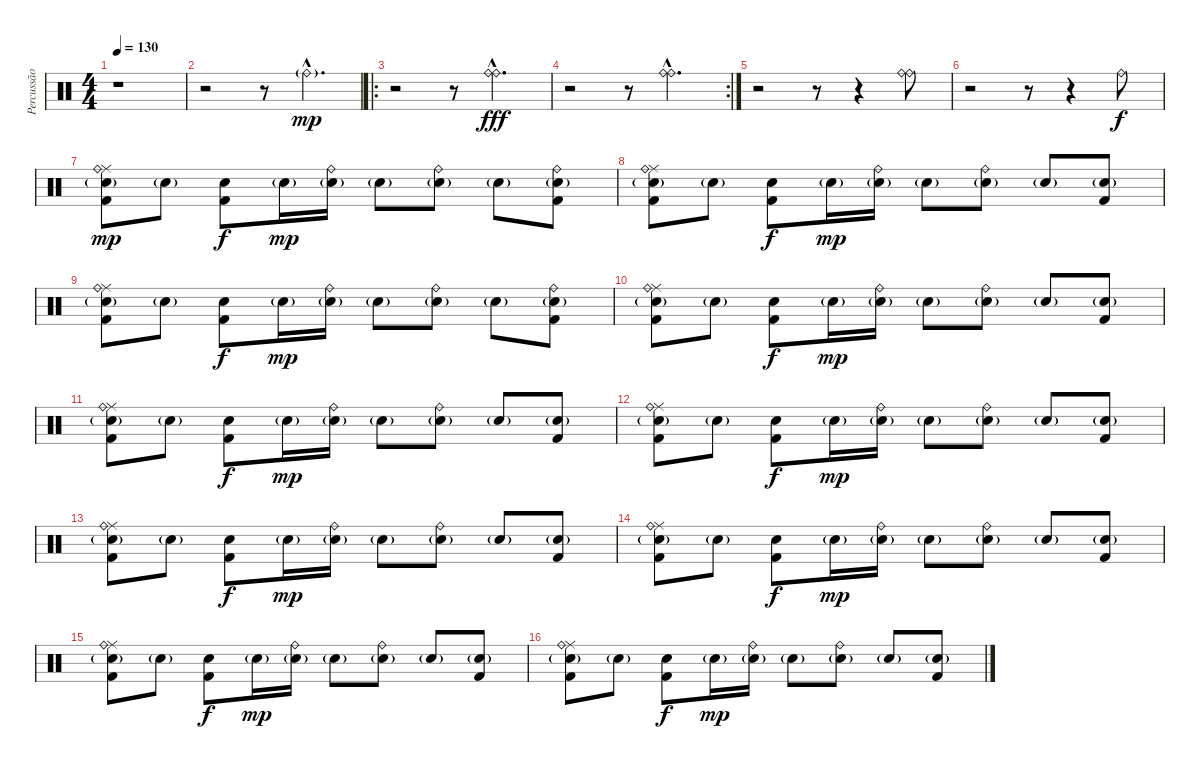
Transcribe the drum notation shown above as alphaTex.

\track ("Percussão" "Percussão") {instrument percussion}
\staff {score}
\articulation defaults
\ts (4 4)
\tempo 130
\clef neutral
\ks c
r.1{dy mp} |
r.2 r.8 "Ride (bell)"{g hac}.4{d} |
\ro
r.2 r.8 ("Ride (bell)"{hac} "Ride (bell)"{hac}).4{d dy fff} |
\rc 2
r.2 r.8 ("Ride (bell)"{hac} "Ride (bell)"{hac}).4{d} |
r.2 r.8 r.4 ("Ride (bell)" "Ride (bell)").8 |
r.2 r.8 r.4 "Ride (bell)".8{dy f} |
("Ride (middle)" "Ride (bell)" "Snare (hit) 2"{g} "Kick (hit) 2").8{dy mp} "Snare (hit) 2"{g}.8 ("Snare (hit) 2" "Kick (hit) 2").8{dy f} "Snare (hit) 2"{g}.16{dy mp} ("Ride (bell)" "Snare (hit) 2"{g}).16 "Snare (hit) 2"{g}.8 ("Ride (bell)" "Snare (hit) 2"{g}).8 "Snare (hit) 2"{g}.8 ("Ride (bell)" "Snare (hit) 2"{g} "Kick (hit) 2").8 |
("Ride (middle)" "Ride (bell)" "Snare (hit) 2"{g} "Kick (hit) 2").8 "Snare (hit) 2"{g}.8 ("Snare (hit) 2" "Kick (hit) 2").8{dy f} "Snare (hit) 2"{g}.16{dy mp} ("Ride (bell)" "Snare (hit) 2"{g}).16 "Snare (hit) 2"{g}.8 ("Ride (bell)" "Snare (hit) 2"{g}).8 "Snare (hit) 2"{g}.8 ("Snare (hit) 2"{g} "Kick (hit) 2").8 |
("Ride (middle)" "Ride (bell)" "Snare (hit) 2"{g} "Kick (hit) 2").8 "Snare (hit) 2"{g}.8 ("Snare (hit) 2" "Kick (hit) 2").8{dy f} "Snare (hit) 2"{g}.16{dy mp} ("Ride (bell)" "Snare (hit) 2"{g}).16 "Snare (hit) 2"{g}.8 ("Ride (bell)" "Snare (hit) 2"{g}).8 "Snare (hit) 2"{g}.8 ("Ride (bell)" "Snare (hit) 2"{g} "Kick (hit) 2").8 |
("Ride (middle)" "Ride (bell)" "Snare (hit) 2"{g} "Kick (hit) 2").8 "Snare (hit) 2"{g}.8 ("Snare (hit) 2" "Kick (hit) 2").8{dy f} "Snare (hit) 2"{g}.16{dy mp} ("Ride (bell)" "Snare (hit) 2"{g}).16 "Snare (hit) 2"{g}.8 ("Ride (bell)" "Snare (hit) 2"{g}).8 "Snare (hit) 2"{g}.8 ("Snare (hit) 2"{g} "Kick (hit) 2").8 |
("Ride (middle)" "Ride (bell)" "Snare (hit) 2"{g} "Kick (hit) 2").8 "Snare (hit) 2"{g}.8 ("Snare (hit) 2" "Kick (hit) 2").8{dy f} "Snare (hit) 2"{g}.16{dy mp} ("Ride (bell)" "Snare (hit) 2"{g}).16 "Snare (hit) 2"{g}.8 ("Ride (bell)" "Snare (hit) 2"{g}).8 "Snare (hit) 2"{g}.8 ("Snare (hit) 2"{g} "Kick (hit) 2").8 |
("Ride (middle)" "Ride (bell)" "Snare (hit) 2"{g} "Kick (hit) 2").8 "Snare (hit) 2"{g}.8 ("Snare (hit) 2" "Kick (hit) 2").8{dy f} "Snare (hit) 2"{g}.16{dy mp} ("Ride (bell)" "Snare (hit) 2"{g}).16 "Snare (hit) 2"{g}.8 ("Ride (bell)" "Snare (hit) 2"{g}).8 "Snare (hit) 2"{g}.8 ("Snare (hit) 2"{g} "Kick (hit) 2").8 |
("Ride (middle)" "Ride (bell)" "Snare (hit) 2"{g} "Kick (hit) 2").8 "Snare (hit) 2"{g}.8 ("Snare (hit) 2" "Kick (hit) 2").8{dy f} "Snare (hit) 2"{g}.16{dy mp} ("Ride (bell)" "Snare (hit) 2"{g}).16 "Snare (hit) 2"{g}.8 ("Ride (bell)" "Snare (hit) 2"{g}).8 "Snare (hit) 2"{g}.8 ("Snare (hit) 2"{g} "Kick (hit) 2").8 |
("Ride (middle)" "Ride (bell)" "Snare (hit) 2"{g} "Kick (hit) 2").8 "Snare (hit) 2"{g}.8 ("Snare (hit) 2" "Kick (hit) 2").8{dy f} "Snare (hit) 2"{g}.16{dy mp} ("Ride (bell)" "Snare (hit) 2"{g}).16 "Snare (hit) 2"{g}.8 ("Ride (bell)" "Snare (hit) 2"{g}).8 "Snare (hit) 2"{g}.8 ("Snare (hit) 2"{g} "Kick (hit) 2").8 |
("Ride (middle)" "Ride (bell)" "Snare (hit) 2"{g} "Kick (hit) 2").8 "Snare (hit) 2"{g}.8 ("Snare (hit) 2" "Kick (hit) 2").8{dy f} "Snare (hit) 2"{g}.16{dy mp} ("Ride (bell)" "Snare (hit) 2"{g}).16 "Snare (hit) 2"{g}.8 ("Ride (bell)" "Snare (hit) 2"{g}).8 "Snare (hit) 2"{g}.8 ("Snare (hit) 2"{g} "Kick (hit) 2").8 |
("Ride (middle)" "Ride (bell)" "Snare (hit) 2"{g} "Kick (hit) 2").8 "Snare (hit) 2"{g}.8 ("Snare (hit) 2" "Kick (hit) 2").8{dy f} "Snare (hit) 2"{g}.16{dy mp} ("Ride (bell)" "Snare (hit) 2"{g}).16 "Snare (hit) 2"{g}.8 ("Ride (bell)" "Snare (hit) 2"{g}).8 "Snare (hit) 2"{g}.8 ("Snare (hit) 2"{g} "Kick (hit) 2").8
